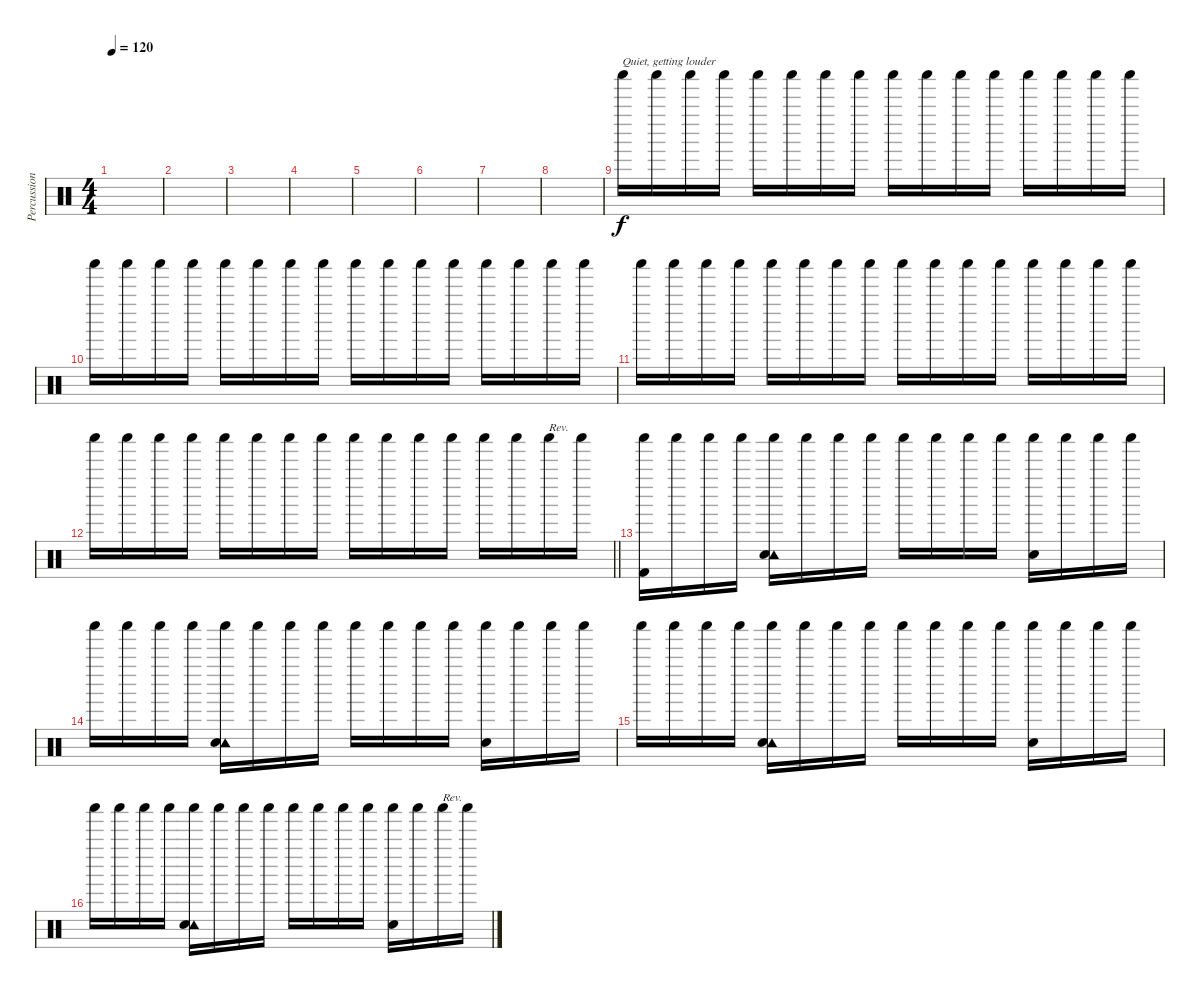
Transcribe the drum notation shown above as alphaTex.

\track ("Percussion" "Percussion") {instrument percussion}
\staff {score}
\articulation defaults
\ts (4 4)
\tempo 120
\clef neutral
\ks c
|
|
|
|
|
|
|
|
"Shaker (hit)".16{txt "Quiet, getting louder"} "Shaker (hit)".16 "Shaker (hit)".16 "Shaker (hit)".16 "Shaker (hit)".16 "Shaker (hit)".16 "Shaker (hit)".16 "Shaker (hit)".16 "Shaker (hit)".16 "Shaker (hit)".16 "Shaker (hit)".16 "Shaker (hit)".16 "Shaker (hit)".16 "Shaker (hit)".16 "Shaker (hit)".16 "Shaker (hit)".16 |
"Shaker (hit)".16 "Shaker (hit)".16 "Shaker (hit)".16 "Shaker (hit)".16 "Shaker (hit)".16 "Shaker (hit)".16 "Shaker (hit)".16 "Shaker (hit)".16 "Shaker (hit)".16 "Shaker (hit)".16 "Shaker (hit)".16 "Shaker (hit)".16 "Shaker (hit)".16 "Shaker (hit)".16 "Shaker (hit)".16 "Shaker (hit)".16 |
"Shaker (hit)".16 "Shaker (hit)".16 "Shaker (hit)".16 "Shaker (hit)".16 "Shaker (hit)".16 "Shaker (hit)".16 "Shaker (hit)".16 "Shaker (hit)".16 "Shaker (hit)".16 "Shaker (hit)".16 "Shaker (hit)".16 "Shaker (hit)".16 "Shaker (hit)".16 "Shaker (hit)".16 "Shaker (hit)".16 "Shaker (hit)".16 |
\barLineRight lightlight "Shaker (hit)".16 "Shaker (hit)".16 "Shaker (hit)".16 "Shaker (hit)".16 "Shaker (hit)".16 "Shaker (hit)".16 "Shaker (hit)".16 "Shaker (hit)".16 "Shaker (hit)".16 "Shaker (hit)".16 "Shaker (hit)".16 "Shaker (hit)".16 "Shaker (hit)".16 "Shaker (hit)".16 "Shaker (hit)".16{txt "Rev."} "Shaker (hit)".16
|
("Shaker (hit)" "Kick (hit) 2").16 "Shaker (hit)".16 "Shaker (hit)".16 "Shaker (hit)".16 ("Shaker (hit)" "Tambourine (hit)" "Hand Clap (hit)").16 "Shaker (hit)".16 "Shaker (hit)".16 "Shaker (hit)".16 "Shaker (hit)".16 "Shaker (hit)".16 "Shaker (hit)".16 "Shaker (hit)".16 ("Shaker (hit)" "Hand Clap (hit)").16 "Shaker (hit)".16 "Shaker (hit)".16 "Shaker (hit)".16 |
"Shaker (hit)".16 "Shaker (hit)".16 "Shaker (hit)".16 "Shaker (hit)".16 ("Shaker (hit)" "Tambourine (hit)" "Hand Clap (hit)").16 "Shaker (hit)".16 "Shaker (hit)".16 "Shaker (hit)".16 "Shaker (hit)".16 "Shaker (hit)".16 "Shaker (hit)".16 "Shaker (hit)".16 ("Shaker (hit)" "Hand Clap (hit)").16 "Shaker (hit)".16 "Shaker (hit)".16 "Shaker (hit)".16 |
"Shaker (hit)".16 "Shaker (hit)".16 "Shaker (hit)".16 "Shaker (hit)".16 ("Shaker (hit)" "Tambourine (hit)" "Hand Clap (hit)").16 "Shaker (hit)".16 "Shaker (hit)".16 "Shaker (hit)".16 "Shaker (hit)".16 "Shaker (hit)".16 "Shaker (hit)".16 "Shaker (hit)".16 ("Shaker (hit)" "Hand Clap (hit)").16 "Shaker (hit)".16 "Shaker (hit)".16 "Shaker (hit)".16 |
"Shaker (hit)".16 "Shaker (hit)".16 "Shaker (hit)".16 "Shaker (hit)".16 ("Shaker (hit)" "Tambourine (hit)" "Hand Clap (hit)").16 "Shaker (hit)".16 "Shaker (hit)".16 "Shaker (hit)".16 "Shaker (hit)".16 "Shaker (hit)".16 "Shaker (hit)".16 "Shaker (hit)".16 ("Shaker (hit)" "Hand Clap (hit)").16 "Shaker (hit)".16 "Shaker (hit)".16{txt "Rev."} "Shaker (hit)".16
